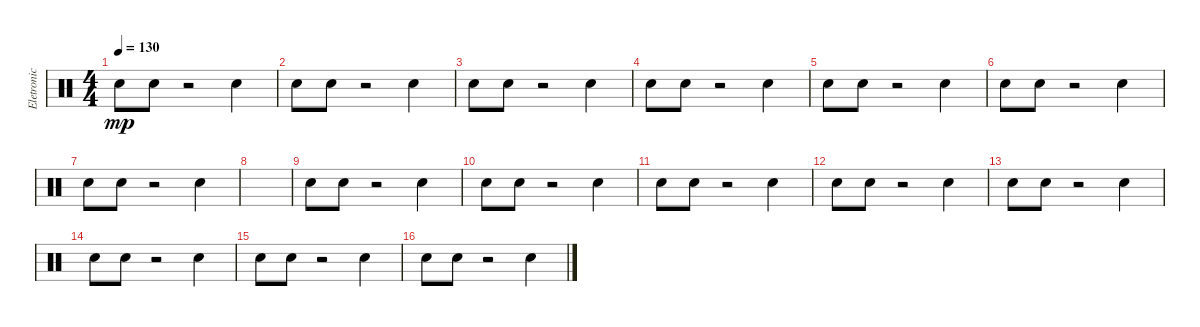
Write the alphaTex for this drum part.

\track ("Eletronic drum" "Eletronic ") {instrument percussion}
\staff {score}
\articulation defaults
\ts (4 4)
\tempo 130
\clef neutral
\ks c "Snare (hit) 2".8{dy mp} "Hand Clap (hit)".8
r.2 "Hand Clap (hit)".4 |
"Snare (hit) 2".8 "Hand Clap (hit)".8 r.2 "Hand Clap (hit)".4 |
"Snare (hit) 2".8 "Hand Clap (hit)".8 r.2 "Hand Clap (hit)".4 |
"Snare (hit) 2".8 "Hand Clap (hit)".8 r.2 "Hand Clap (hit)".4 |
"Snare (hit) 2".8 "Hand Clap (hit)".8 r.2 "Hand Clap (hit)".4 |
"Snare (hit) 2".8 "Hand Clap (hit)".8 r.2 "Hand Clap (hit)".4 |
"Snare (hit) 2".8 "Hand Clap (hit)".8 r.2 "Hand Clap (hit)".4 |
|
"Snare (hit) 2".8 "Hand Clap (hit)".8 r.2 "Hand Clap (hit)".4 |
"Snare (hit) 2".8 "Hand Clap (hit)".8 r.2 "Hand Clap (hit)".4 |
"Snare (hit) 2".8 "Hand Clap (hit)".8 r.2 "Hand Clap (hit)".4 |
"Snare (hit) 2".8 "Hand Clap (hit)".8 r.2 "Hand Clap (hit)".4 |
"Snare (hit) 2".8 "Hand Clap (hit)".8 r.2 "Hand Clap (hit)".4 |
"Snare (hit) 2".8 "Hand Clap (hit)".8 r.2 "Hand Clap (hit)".4 |
"Snare (hit) 2".8 "Hand Clap (hit)".8 r.2 "Hand Clap (hit)".4 |
"Snare (hit) 2".8 "Hand Clap (hit)".8 r.2 "Hand Clap (hit)".4
